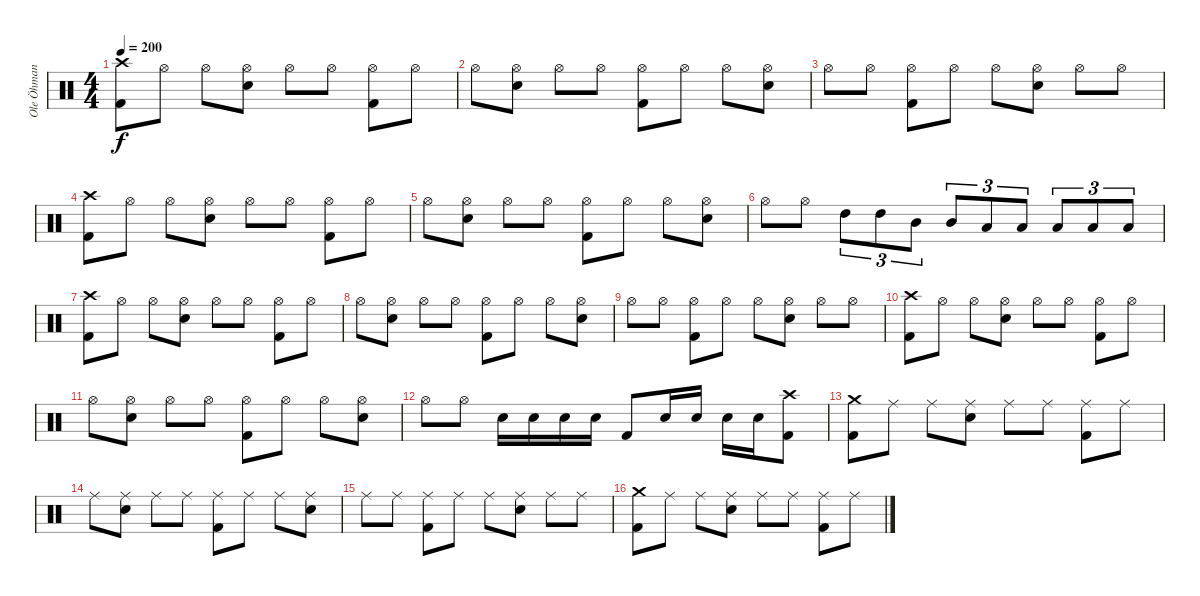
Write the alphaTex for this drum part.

\track ("Ole Öhman" "Ole Öhman") {instrument percussion}
\staff {score}
\articulation defaults
\ts (4 4)
\tempo 200
\clef neutral
\ks c
("Crash high (hit)" "Kick (hit) 2").8{dy f} "Hi-Hat (open)".8 "Hi-Hat (open)".8 ("Hi-Hat (open)" "Snare (hit) 2").8 "Hi-Hat (open)".8 "Hi-Hat (open)".8 ("Hi-Hat (open)" "Kick (hit) 2").8 "Hi-Hat (open)".8 |
"Hi-Hat (open)".8 ("Hi-Hat (open)" "Snare (hit) 2").8 "Hi-Hat (open)".8 "Hi-Hat (open)".8 ("Hi-Hat (open)" "Kick (hit) 2").8 "Hi-Hat (open)".8 "Hi-Hat (open)".8 ("Hi-Hat (open)" "Snare (hit) 2").8 |
"Hi-Hat (open)".8 "Hi-Hat (open)".8 ("Hi-Hat (open)" "Kick (hit) 2").8 "Hi-Hat (open)".8 "Hi-Hat (open)".8 ("Hi-Hat (open)" "Snare (hit) 2").8 "Hi-Hat (open)".8 "Hi-Hat (open)".8 |
("Crash high (hit)" "Kick (hit) 2").8 "Hi-Hat (open)".8 "Hi-Hat (open)".8 ("Hi-Hat (open)" "Snare (hit) 2").8 "Hi-Hat (open)".8 "Hi-Hat (open)".8 ("Hi-Hat (open)" "Kick (hit) 2").8 "Hi-Hat (open)".8 |
"Hi-Hat (open)".8 ("Hi-Hat (open)" "Snare (hit) 2").8 "Hi-Hat (open)".8 "Hi-Hat (open)".8 ("Hi-Hat (open)" "Kick (hit) 2").8 "Hi-Hat (open)".8 "Hi-Hat (open)".8 ("Hi-Hat (open)" "Snare (hit) 2").8 |
"Hi-Hat (open)".8 "Hi-Hat (open)".8 "High Tom (hit)".8{tu (3 2)} "High Tom (hit)".8{tu (3 2)} "Mid Tom (hit)".8{tu (3 2)} "Mid Tom (hit)".8{tu (3 2)} "Low Tom (hit)".8{tu (3 2)} "Low Tom (hit)".8{tu (3 2)} "Low Floor Tom (hit)".8{tu (3 2)} "Low Floor Tom (hit)".8{tu (3 2)} "Low Floor Tom (hit)".8{tu (3 2)} |
("Crash high (hit)" "Kick (hit) 2").8 "Hi-Hat (open)".8 "Hi-Hat (open)".8 ("Hi-Hat (open)" "Snare (hit) 2").8 "Hi-Hat (open)".8 "Hi-Hat (open)".8 ("Hi-Hat (open)" "Kick (hit) 2").8 "Hi-Hat (open)".8 |
"Hi-Hat (open)".8 ("Hi-Hat (open)" "Snare (hit) 2").8 "Hi-Hat (open)".8 "Hi-Hat (open)".8 ("Hi-Hat (open)" "Kick (hit) 2").8 "Hi-Hat (open)".8 "Hi-Hat (open)".8 ("Hi-Hat (open)" "Snare (hit) 2").8 |
"Hi-Hat (open)".8 "Hi-Hat (open)".8 ("Hi-Hat (open)" "Kick (hit) 2").8 "Hi-Hat (open)".8 "Hi-Hat (open)".8 ("Hi-Hat (open)" "Snare (hit) 2").8 "Hi-Hat (open)".8 "Hi-Hat (open)".8 |
("Crash high (hit)" "Kick (hit) 2").8 "Hi-Hat (open)".8 "Hi-Hat (open)".8 ("Hi-Hat (open)" "Snare (hit) 2").8 "Hi-Hat (open)".8 "Hi-Hat (open)".8 ("Hi-Hat (open)" "Kick (hit) 2").8 "Hi-Hat (open)".8 |
"Hi-Hat (open)".8 ("Hi-Hat (open)" "Snare (hit) 2").8 "Hi-Hat (open)".8 "Hi-Hat (open)".8 ("Hi-Hat (open)" "Kick (hit) 2").8 "Hi-Hat (open)".8 "Hi-Hat (open)".8 ("Hi-Hat (open)" "Snare (hit) 2").8 |
"Hi-Hat (open)".8 "Hi-Hat (open)".8 "Snare (hit) 2".16 "Snare (hit) 2".16 "Snare (hit) 2".16 "Snare (hit) 2".16 "Kick (hit) 2".8 "Snare (hit) 2".16 "Snare (hit) 2".16 "Snare (hit) 2".16 "Snare (hit) 2".16 ("Crash high (hit)" "Kick (hit) 2").8 |
("Crash medium (hit)" "Kick (hit) 2").8 "Ride (middle)".8 "Ride (middle)".8 ("Ride (middle)" "Snare (hit) 2").8 "Ride (middle)".8 "Ride (middle)".8 ("Ride (middle)" "Kick (hit) 2").8 "Ride (middle)".8 |
"Ride (middle)".8 ("Ride (middle)" "Snare (hit) 2").8 "Ride (middle)".8 "Ride (middle)".8 ("Ride (middle)" "Kick (hit) 2").8 "Ride (middle)".8 "Ride (middle)".8 ("Ride (middle)" "Snare (hit) 2").8 |
"Ride (middle)".8 "Ride (middle)".8 ("Ride (middle)" "Kick (hit) 2").8 "Ride (middle)".8 "Ride (middle)".8 ("Ride (middle)" "Snare (hit) 2").8 "Ride (middle)".8 "Ride (middle)".8 |
("Crash medium (hit)" "Kick (hit) 2").8 "Ride (middle)".8 "Ride (middle)".8 ("Ride (middle)" "Snare (hit) 2").8 "Ride (middle)".8 "Ride (middle)".8 ("Ride (middle)" "Kick (hit) 2").8 "Ride (middle)".8
